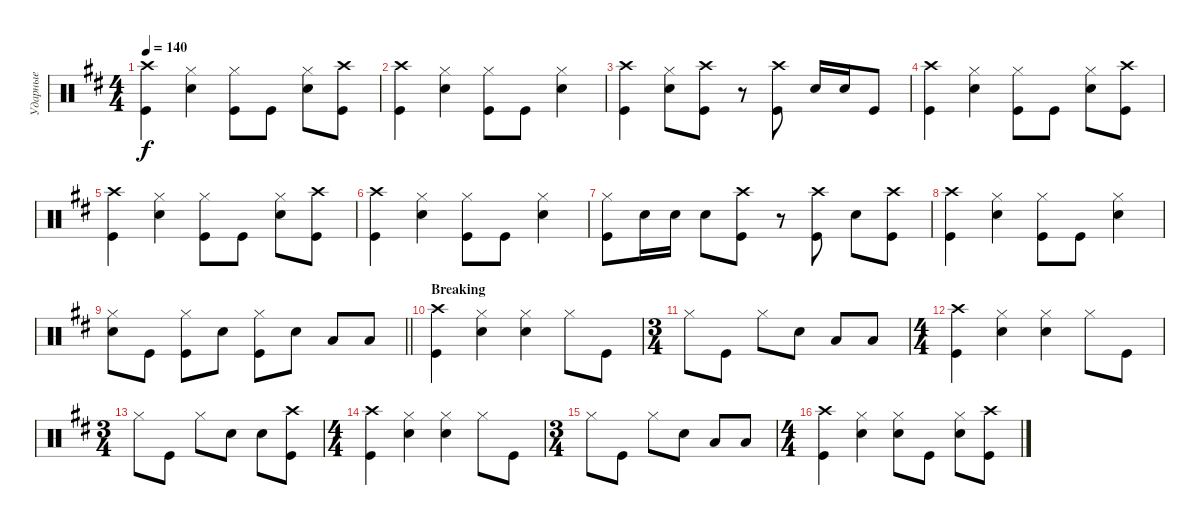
\track ("Ударные" "Ударные") {instrument percussion}
\staff {score}
\articulation defaults
\ts (4 4)
\tempo 140
\clef neutral
\ks bminor
("Kick (hit)" "Crash high (hit)").4{dy f} ("Snare (hit) 2" "Hi-Hat (closed)").4 ("Kick (hit)" "Hi-Hat (closed)").8 "Kick (hit)".8 ("Snare (hit) 2" "Hi-Hat (closed)").8 ("Kick (hit)" "Crash high (hit)").8 |
("Kick (hit)" "Crash high (hit)").4 ("Snare (hit) 2" "Hi-Hat (closed)").4 ("Kick (hit)" "Hi-Hat (closed)").8 "Kick (hit)".8 ("Snare (hit) 2" "Hi-Hat (closed)").4 |
("Kick (hit)" "Crash high (hit)").4 ("Snare (hit) 2" "Hi-Hat (closed)").8 ("Kick (hit)" "Crash high (hit)").8 r.8 ("Kick (hit)" "Crash high (hit)").8 "Snare (hit) 2".16 "Snare (hit) 2".16 "Kick (hit)".8 |
("Kick (hit)" "Crash high (hit)").4 ("Snare (hit) 2" "Hi-Hat (closed)").4 ("Kick (hit)" "Hi-Hat (closed)").8 "Kick (hit)".8 ("Snare (hit) 2" "Hi-Hat (closed)").8 ("Kick (hit)" "Crash high (hit)").8 |
("Kick (hit)" "Crash high (hit)").4 ("Snare (hit) 2" "Hi-Hat (closed)").4 ("Kick (hit)" "Hi-Hat (closed)").8 "Kick (hit)".8 ("Snare (hit) 2" "Hi-Hat (closed)").8 ("Kick (hit)" "Crash high (hit)").8 |
("Kick (hit)" "Crash high (hit)").4 ("Snare (hit) 2" "Hi-Hat (closed)").4 ("Kick (hit)" "Hi-Hat (closed)").8 "Kick (hit)".8 ("Snare (hit) 2" "Hi-Hat (closed)").4 |
("Kick (hit)" "Hi-Hat (closed)").8 "Snare (hit) 2".16 "Snare (hit) 2".16 "Snare (hit) 2".8 ("Kick (hit)" "Crash high (hit)").8 r.8 ("Kick (hit)" "Crash high (hit)").8 "Snare (hit) 2".8 ("Kick (hit)" "Crash high (hit)").8 |
("Kick (hit)" "Crash high (hit)").4 ("Snare (hit) 2" "Hi-Hat (closed)").4 ("Kick (hit)" "Hi-Hat (closed)").8 "Kick (hit)".8 ("Snare (hit) 2" "Hi-Hat (closed)").4 |
\barLineRight lightlight
("Snare (hit) 2" "Hi-Hat (closed)").8 "Kick (hit)".8 ("Kick (hit)" "Hi-Hat (closed)").8 "Snare (hit) 2".8 ("Kick (hit)" "Hi-Hat (closed)").8 "Snare (hit) 2".8 "Low Tom (hit)".8 "Low Tom (hit)".8 |
\section ("" "Breaking")
("Kick (hit)" "Crash high (hit)").4 ("Snare (hit) 2" "Hi-Hat (closed)").4 ("Snare (hit) 2" "Hi-Hat (closed)").4 "Hi-Hat (closed)".8 "Kick (hit)".8 |
\ts (3 4)
"Hi-Hat (closed)".8 "Kick (hit)".8 "Hi-Hat (closed)".8 "Snare (hit) 2".8 "Low Tom (hit)".8 "Low Tom (hit)".8 |
\ts (4 4)
("Kick (hit)" "Crash high (hit)").4 ("Snare (hit) 2" "Hi-Hat (closed)").4 ("Snare (hit) 2" "Hi-Hat (closed)").4 "Hi-Hat (closed)".8 "Kick (hit)".8 |
\ts (3 4)
"Hi-Hat (closed)".8 "Kick (hit)".8 "Hi-Hat (closed)".8 "Snare (hit) 2".8 "Snare (hit) 2".8 ("Kick (hit)" "Crash high (hit)").8 |
\ts (4 4)
("Kick (hit)" "Crash high (hit)").4 ("Snare (hit) 2" "Hi-Hat (closed)").4 ("Snare (hit) 2" "Hi-Hat (closed)").4 "Hi-Hat (closed)".8 "Kick (hit)".8 |
\ts (3 4)
"Hi-Hat (closed)".8 "Kick (hit)".8 "Hi-Hat (closed)".8 "Snare (hit) 2".8 "Low Tom (hit)".8 "Low Tom (hit)".8 |
\ts (4 4)
("Kick (hit)" "Crash high (hit)").4 ("Snare (hit) 2" "Hi-Hat (closed)").4 ("Snare (hit) 2" "Hi-Hat (closed)").8 "Kick (hit)".8 ("Snare (hit) 2" "Hi-Hat (closed)").8 ("Kick (hit)" "Crash high (hit)").8
